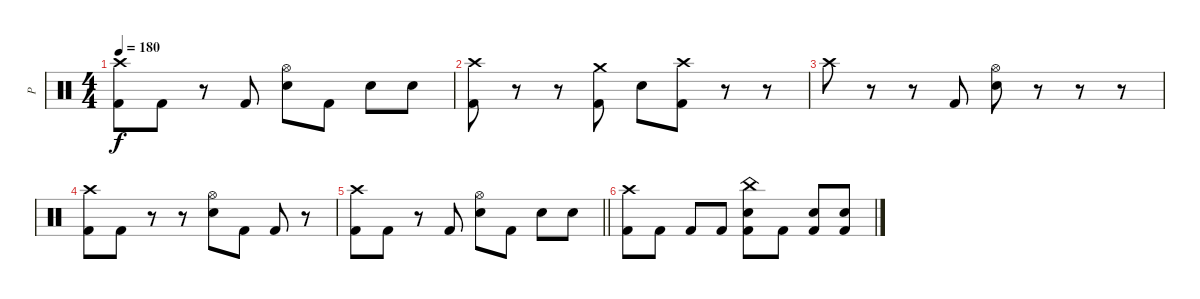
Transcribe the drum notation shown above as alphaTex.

\track ("P" "P") {instrument percussion}
\staff {score}
\articulation defaults
\ts (4 4)
\tempo 180
\clef neutral
\ks c
("Crash high (hit)" "Kick (hit) 2").8{dy f} "Kick (hit) 2".8 r.8 "Kick (hit) 2".8 ("Hi-Hat (open)" "Electric Snare (hit)").8 "Kick (hit) 2".8 "Electric Snare (hit)".8 "Electric Snare (hit)".8 |
("Crash high (hit)" "Kick (hit) 2").8 r.8 r.8 ("Crash medium (hit)" "Kick (hit) 2").8 "Electric Snare (hit)".8 ("Crash high (hit)" "Kick (hit) 2").8 r.8 r.8 |
"Crash high (hit)".8 r.8 r.8 "Kick (hit) 2".8 ("Hi-Hat (open)" "Electric Snare (hit)").8 r.8 r.8 r.8 |
("Crash high (hit)" "Kick (hit) 2").8 "Kick (hit) 2".8 r.8 r.8 ("Hi-Hat (open)" "Electric Snare (hit)").8 "Kick (hit) 2".8 "Kick (hit) 2".8 r.8 |
\barLineRight lightlight
("Crash high (hit)" "Kick (hit) 2").8 "Kick (hit) 2".8 r.8 "Kick (hit) 2".8 ("Hi-Hat (open)" "Electric Snare (hit)").8 "Kick (hit) 2".8 "Electric Snare (hit)".8 "Electric Snare (hit)".8 |
("Crash high (hit)" "Kick (hit) 2").8 "Kick (hit) 2".8 "Kick (hit) 2".8 "Kick (hit) 2".8 ("China (hit)" "Electric Snare (hit)" "Kick (hit) 2").8 "Kick (hit) 2".8 ("Electric Snare (hit)" "Kick (hit) 2").8 ("Electric Snare (hit)" "Kick (hit) 2").8
